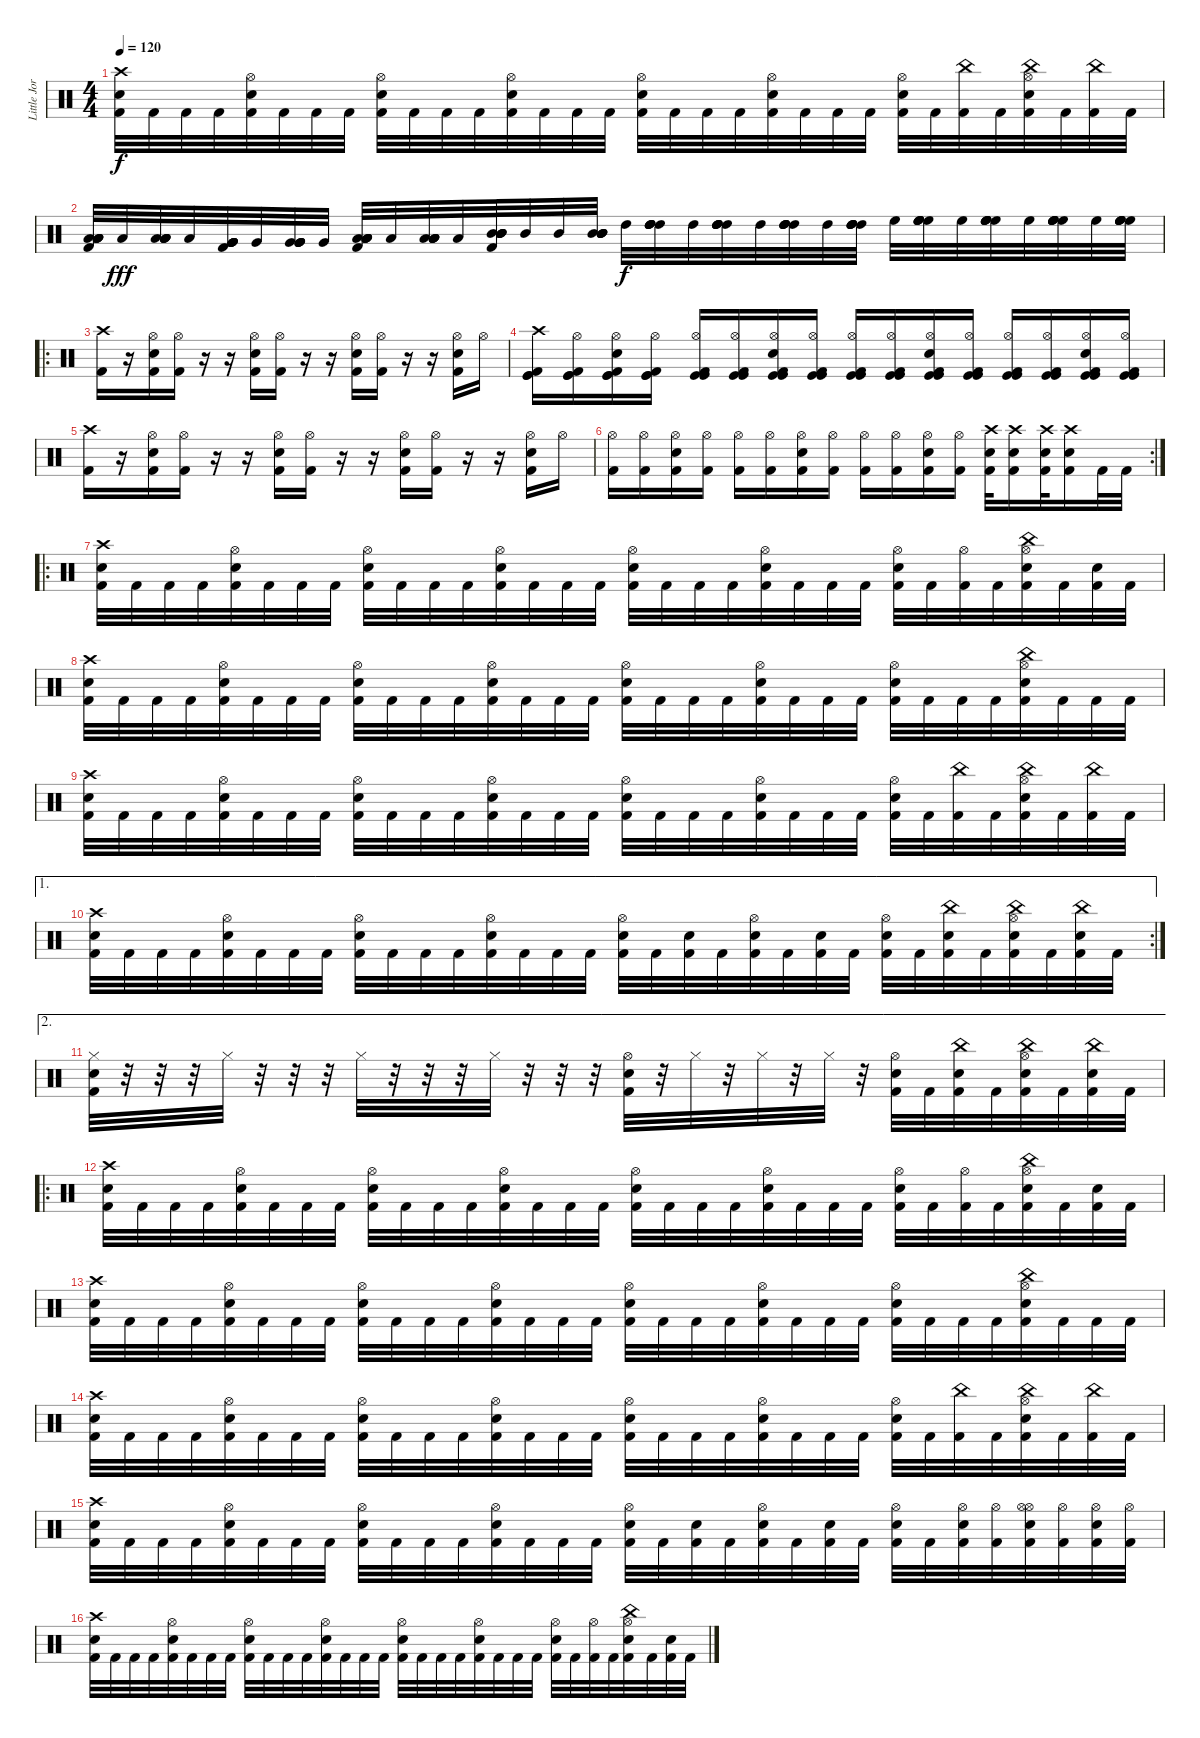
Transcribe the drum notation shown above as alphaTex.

\track ("Little Jordison" "Little Jor") {instrument percussion}
\staff {score}
\articulation defaults
\ts (4 4)
\tempo 120
\clef neutral
\ks c
("Crash high (hit)" "Electric Snare (hit)" "Kick (hit) 2").32{dy f} "Kick (hit) 2".32 "Kick (hit) 2".32 "Kick (hit) 2".32 ("Hi-Hat (open)" "Electric Snare (hit)" "Kick (hit) 2").32 "Kick (hit) 2".32 "Kick (hit) 2".32 "Kick (hit) 2".32 ("Hi-Hat (open)" "Electric Snare (hit)" "Kick (hit) 2").32 "Kick (hit) 2".32 "Kick (hit) 2".32 "Kick (hit) 2".32 ("Hi-Hat (open)" "Electric Snare (hit)" "Kick (hit) 2").32 "Kick (hit) 2".32 "Kick (hit) 2".32 "Kick (hit) 2".32 ("Hi-Hat (open)" "Electric Snare (hit)" "Kick (hit) 2").32 "Kick (hit) 2".32 "Kick (hit) 2".32 "Kick (hit) 2".32 ("Hi-Hat (open)" "Electric Snare (hit)" "Kick (hit) 2").32 "Kick (hit) 2".32 "Kick (hit) 2".32 "Kick (hit) 2".32 ("Hi-Hat (open)" "Electric Snare (hit)" "Kick (hit) 2").32 "Kick (hit) 2".32 ("China (hit)" "Kick (hit) 2").32 "Kick (hit) 2".32 ("China (hit)" "Hi-Hat (open)" "Electric Snare (hit)" "Kick (hit) 2").32 "Kick (hit) 2".32 ("China (hit)" "Kick (hit) 2").32 "Kick (hit) 2".32 |
("Low Floor Tom (hit)" "Low Floor Tom (hit)" "Low Floor Tom (hit)" "Low Floor Tom (hit)" "Low Floor Tom (hit)" "Kick (hit) 2").32 "Low Floor Tom (hit)".32{dy fff} ("Low Floor Tom (hit)" "Low Floor Tom (hit)" "Low Floor Tom (hit)" "Low Floor Tom (hit)" "Low Floor Tom (hit)").32 "Low Floor Tom (hit)".32 ("Very Low Tom (hit)" "Very Low Tom (hit)" "Very Low Tom (hit)" "Very Low Tom (hit)" "Very Low Tom (hit)" "Kick (hit) 2").32 "Very Low Tom (hit)".32 ("Very Low Tom (hit)" "Very Low Tom (hit)" "Very Low Tom (hit)" "Very Low Tom (hit)" "Very Low Tom (hit)").32 "Very Low Tom (hit)".32 ("Low Tom (hit)" "Low Tom (hit)" "Low Tom (hit)" "Low Tom (hit)" "Low Tom (hit)" "Kick (hit) 2").32 "Low Tom (hit)".32 ("Low Tom (hit)" "Low Tom (hit)" "Low Tom (hit)" "Low Tom (hit)" "Low Tom (hit)").32 "Low Tom (hit)".32 ("Mid Tom (hit)" "Mid Tom (hit)" "Mid Tom (hit)" "Mid Tom (hit)" "Mid Tom (hit)" "Kick (hit) 2").32 "Mid Tom (hit)".32 "Mid Tom (hit)".32 ("Mid Tom (hit)" "Mid Tom (hit)" "Mid Tom (hit)" "Mid Tom (hit)" "Mid Tom (hit)").32 "High Tom (hit)".32{dy f} ("High Tom (hit)" "High Tom (hit)" "High Tom (hit)" "High Tom (hit)" "High Tom (hit)").32 "High Tom (hit)".32 ("High Tom (hit)" "High Tom (hit)" "High Tom (hit)" "High Tom (hit)" "High Tom (hit)").32 "High Tom (hit)".32 ("High Tom (hit)" "High Tom (hit)" "High Tom (hit)" "High Tom (hit)" "High Tom (hit)").32 "High Tom (hit)".32 ("High Tom (hit)" "High Tom (hit)" "High Tom (hit)" "High Tom (hit)" "High Tom (hit)").32 "High Floor Tom (hit)".32 ("High Floor Tom (hit)" "High Floor Tom (hit)" "High Floor Tom (hit)" "High Floor Tom (hit)" "High Floor Tom (hit)").32 "High Floor Tom (hit)".32 ("High Floor Tom (hit)" "High Floor Tom (hit)" "High Floor Tom (hit)" "High Floor Tom (hit)" "High Floor Tom (hit)").32 "High Floor Tom (hit)".32 ("High Floor Tom (hit)" "High Floor Tom (hit)" "High Floor Tom (hit)" "High Floor Tom (hit)" "High Floor Tom (hit)").32 "High Floor Tom (hit)".32 ("High Floor Tom (hit)" "High Floor Tom (hit)" "High Floor Tom (hit)" "High Floor Tom (hit)" "High Floor Tom (hit)").32 |
\ro
("Crash high (hit)" "Kick (hit) 2").16 r.16 ("Hi-Hat (open)" "Electric Snare (hit)" "Kick (hit) 2").16 ("Hi-Hat (open)" "Kick (hit) 2").16 r.16 r.16 ("Hi-Hat (open)" "Electric Snare (hit)" "Kick (hit) 2").16 ("Hi-Hat (open)" "Kick (hit) 2").16 r.16 r.16 ("Hi-Hat (open)" "Electric Snare (hit)" "Kick (hit) 2").16 ("Hi-Hat (open)" "Kick (hit) 2").16 r.16 r.16 ("Hi-Hat (open)" "Electric Snare (hit)" "Kick (hit) 2").16 "Hi-Hat (open)".16 |
("Crash high (hit)" "Kick (hit)" "Kick (hit)" "Kick (hit) 2").16 ("Hi-Hat (open)" "Kick (hit)" "Kick (hit)" "Kick (hit) 2").16 ("Hi-Hat (open)" "Kick (hit)" "Kick (hit)" "Electric Snare (hit)" "Kick (hit) 2").16 ("Hi-Hat (open)" "Kick (hit)" "Kick (hit)" "Kick (hit) 2").16 ("Hi-Hat (open)" "Kick (hit)" "Kick (hit)" "Kick (hit) 2").16 ("Hi-Hat (open)" "Kick (hit)" "Kick (hit)" "Kick (hit) 2").16 ("Hi-Hat (open)" "Kick (hit)" "Kick (hit)" "Electric Snare (hit)" "Kick (hit) 2").16 ("Hi-Hat (open)" "Kick (hit)" "Kick (hit)" "Kick (hit) 2").16 ("Hi-Hat (open)" "Kick (hit)" "Kick (hit)" "Kick (hit) 2").16 ("Hi-Hat (open)" "Kick (hit)" "Kick (hit)" "Kick (hit) 2").16 ("Hi-Hat (open)" "Kick (hit)" "Kick (hit)" "Electric Snare (hit)" "Kick (hit) 2").16 ("Hi-Hat (open)" "Kick (hit)" "Kick (hit)" "Kick (hit) 2").16 ("Hi-Hat (open)" "Kick (hit)" "Kick (hit)" "Kick (hit) 2").16 ("Hi-Hat (open)" "Kick (hit)" "Kick (hit)" "Kick (hit) 2").16 ("Hi-Hat (open)" "Kick (hit)" "Kick (hit)" "Electric Snare (hit)" "Kick (hit) 2").16 ("Hi-Hat (open)" "Kick (hit)" "Kick (hit)" "Kick (hit) 2").16 |
("Crash high (hit)" "Kick (hit) 2").16 r.16 ("Hi-Hat (open)" "Electric Snare (hit)" "Kick (hit) 2").16 ("Hi-Hat (open)" "Kick (hit) 2").16 r.16 r.16 ("Hi-Hat (open)" "Electric Snare (hit)" "Kick (hit) 2").16 ("Hi-Hat (open)" "Kick (hit) 2").16 r.16 r.16 ("Hi-Hat (open)" "Electric Snare (hit)" "Kick (hit) 2").16 ("Hi-Hat (open)" "Kick (hit) 2").16 r.16 r.16 ("Hi-Hat (open)" "Electric Snare (hit)" "Kick (hit) 2").16 "Hi-Hat (open)".16 |
\rc 2
("Hi-Hat (open)" "Kick (hit) 2").16 ("Hi-Hat (open)" "Kick (hit) 2").16 ("Hi-Hat (open)" "Electric Snare (hit)" "Kick (hit) 2").16 ("Hi-Hat (open)" "Kick (hit) 2").16 ("Hi-Hat (open)" "Kick (hit) 2").16 ("Hi-Hat (open)" "Kick (hit) 2").16 ("Hi-Hat (open)" "Electric Snare (hit)" "Kick (hit) 2").16 ("Hi-Hat (open)" "Kick (hit) 2").16 ("Hi-Hat (open)" "Kick (hit) 2").16 ("Hi-Hat (open)" "Kick (hit) 2").16 ("Hi-Hat (open)" "Electric Snare (hit)" "Kick (hit) 2").16 ("Hi-Hat (open)" "Kick (hit) 2").16 ("Crash high (hit)" "Electric Snare (hit)" "Kick (hit) 2").32 ("Crash high (hit)" "Electric Snare (hit)" "Kick (hit) 2").16 ("Crash high (hit)" "Electric Snare (hit)" "Kick (hit) 2").32 ("Crash high (hit)" "Electric Snare (hit)" "Kick (hit) 2").16 "Kick (hit) 2".32 "Kick (hit) 2".32 |
\ro
("Crash high (hit)" "Electric Snare (hit)" "Kick (hit) 2").32 "Kick (hit) 2".32 "Kick (hit) 2".32 "Kick (hit) 2".32 ("Hi-Hat (open)" "Electric Snare (hit)" "Kick (hit) 2").32 "Kick (hit) 2".32 "Kick (hit) 2".32 "Kick (hit) 2".32 ("Hi-Hat (open)" "Electric Snare (hit)" "Kick (hit) 2").32 "Kick (hit) 2".32 "Kick (hit) 2".32 "Kick (hit) 2".32 ("Hi-Hat (open)" "Electric Snare (hit)" "Kick (hit) 2").32 "Kick (hit) 2".32 "Kick (hit) 2".32 "Kick (hit) 2".32 ("Hi-Hat (open)" "Electric Snare (hit)" "Kick (hit) 2").32 "Kick (hit) 2".32 "Kick (hit) 2".32 "Kick (hit) 2".32 ("Hi-Hat (open)" "Electric Snare (hit)" "Kick (hit) 2").32 "Kick (hit) 2".32 "Kick (hit) 2".32 "Kick (hit) 2".32 ("Hi-Hat (open)" "Electric Snare (hit)" "Kick (hit) 2").32 "Kick (hit) 2".32 ("Hi-Hat (open)" "Kick (hit) 2").32 "Kick (hit) 2".32 ("China (hit)" "Hi-Hat (open)" "Electric Snare (hit)" "Kick (hit) 2").32 "Kick (hit) 2".32 ("Snare (hit)" "Kick (hit) 2").32 "Kick (hit) 2".32 |
("Crash high (hit)" "Electric Snare (hit)" "Kick (hit) 2").32 "Kick (hit) 2".32 "Kick (hit) 2".32 "Kick (hit) 2".32 ("Hi-Hat (open)" "Electric Snare (hit)" "Kick (hit) 2").32 "Kick (hit) 2".32 "Kick (hit) 2".32 "Kick (hit) 2".32 ("Hi-Hat (open)" "Electric Snare (hit)" "Kick (hit) 2").32 "Kick (hit) 2".32 "Kick (hit) 2".32 "Kick (hit) 2".32 ("Hi-Hat (open)" "Electric Snare (hit)" "Kick (hit) 2").32 "Kick (hit) 2".32 "Kick (hit) 2".32 "Kick (hit) 2".32 ("Hi-Hat (open)" "Electric Snare (hit)" "Kick (hit) 2").32 "Kick (hit) 2".32 "Kick (hit) 2".32 "Kick (hit) 2".32 ("Hi-Hat (open)" "Electric Snare (hit)" "Kick (hit) 2").32 "Kick (hit) 2".32 "Kick (hit) 2".32 "Kick (hit) 2".32 ("Hi-Hat (open)" "Electric Snare (hit)" "Kick (hit) 2").32 "Kick (hit) 2".32 "Kick (hit) 2".32 "Kick (hit) 2".32 ("China (hit)" "Hi-Hat (open)" "Electric Snare (hit)" "Kick (hit) 2").32 "Kick (hit) 2".32 "Kick (hit) 2".32 "Kick (hit) 2".32 |
("Crash high (hit)" "Electric Snare (hit)" "Kick (hit) 2").32 "Kick (hit) 2".32 "Kick (hit) 2".32 "Kick (hit) 2".32 ("Hi-Hat (open)" "Electric Snare (hit)" "Kick (hit) 2").32 "Kick (hit) 2".32 "Kick (hit) 2".32 "Kick (hit) 2".32 ("Hi-Hat (open)" "Electric Snare (hit)" "Kick (hit) 2").32 "Kick (hit) 2".32 "Kick (hit) 2".32 "Kick (hit) 2".32 ("Hi-Hat (open)" "Electric Snare (hit)" "Kick (hit) 2").32 "Kick (hit) 2".32 "Kick (hit) 2".32 "Kick (hit) 2".32 ("Hi-Hat (open)" "Electric Snare (hit)" "Kick (hit) 2").32 "Kick (hit) 2".32 "Kick (hit) 2".32 "Kick (hit) 2".32 ("Hi-Hat (open)" "Electric Snare (hit)" "Kick (hit) 2").32 "Kick (hit) 2".32 "Kick (hit) 2".32 "Kick (hit) 2".32 ("Hi-Hat (open)" "Electric Snare (hit)" "Kick (hit) 2").32 "Kick (hit) 2".32 ("China (hit)" "Kick (hit) 2").32 "Kick (hit) 2".32 ("China (hit)" "Hi-Hat (open)" "Electric Snare (hit)" "Kick (hit) 2").32 "Kick (hit) 2".32 ("China (hit)" "Kick (hit) 2").32 "Kick (hit) 2".32 |
\ae 1
\rc 2
("Crash high (hit)" "Electric Snare (hit)" "Kick (hit) 2").32 "Kick (hit) 2".32 "Kick (hit) 2".32 "Kick (hit) 2".32 ("Hi-Hat (open)" "Electric Snare (hit)" "Kick (hit) 2").32 "Kick (hit) 2".32 "Kick (hit) 2".32 "Kick (hit) 2".32 ("Hi-Hat (open)" "Electric Snare (hit)" "Kick (hit) 2").32 "Kick (hit) 2".32 "Kick (hit) 2".32 "Kick (hit) 2".32 ("Hi-Hat (open)" "Electric Snare (hit)" "Kick (hit) 2").32 "Kick (hit) 2".32 "Kick (hit) 2".32 "Kick (hit) 2".32 ("Hi-Hat (open)" "Electric Snare (hit)" "Kick (hit) 2").32 "Kick (hit) 2".32 ("Electric Snare (hit)" "Kick (hit) 2").32 "Kick (hit) 2".32 ("Hi-Hat (open)" "Electric Snare (hit)" "Kick (hit) 2").32 "Kick (hit) 2".32 ("Electric Snare (hit)" "Kick (hit) 2").32 "Kick (hit) 2".32 ("Hi-Hat (open)" "Electric Snare (hit)" "Kick (hit) 2").32 "Kick (hit) 2".32 ("China (hit)" "Electric Snare (hit)" "Kick (hit) 2").32 "Kick (hit) 2".32 ("China (hit)" "Hi-Hat (open)" "Electric Snare (hit)" "Kick (hit) 2").32 "Kick (hit) 2".32 ("China (hit)" "Electric Snare (hit)" "Kick (hit) 2").32 "Kick (hit) 2".32 |
\ae 2
("Hi-Hat (closed)" "Electric Snare (hit)" "Kick (hit) 2").32 r.32 r.32 r.32 "Hi-Hat (closed)".32 r.32 r.32 r.32 "Hi-Hat (closed)".32 r.32 r.32 r.32 "Hi-Hat (closed)".32 r.32 r.32 r.32 ("Hi-Hat (open)" "Electric Snare (hit)" "Kick (hit) 2").32 r.32 "Hi-Hat (closed)".32 r.32 "Hi-Hat (closed)".32 r.32 "Hi-Hat (closed)".32 r.32 ("Hi-Hat (open)" "Electric Snare (hit)" "Kick (hit) 2").32 "Kick (hit) 2".32 ("China (hit)" "Electric Snare (hit)" "Kick (hit) 2").32 "Kick (hit) 2".32 ("China (hit)" "Hi-Hat (open)" "Electric Snare (hit)" "Kick (hit) 2").32 "Kick (hit) 2".32 ("China (hit)" "Electric Snare (hit)" "Kick (hit) 2").32 "Kick (hit) 2".32 |
\ro
("Crash high (hit)" "Electric Snare (hit)" "Kick (hit) 2").32 "Kick (hit) 2".32 "Kick (hit) 2".32 "Kick (hit) 2".32 ("Hi-Hat (open)" "Electric Snare (hit)" "Kick (hit) 2").32 "Kick (hit) 2".32 "Kick (hit) 2".32 "Kick (hit) 2".32 ("Hi-Hat (open)" "Electric Snare (hit)" "Kick (hit) 2").32 "Kick (hit) 2".32 "Kick (hit) 2".32 "Kick (hit) 2".32 ("Hi-Hat (open)" "Electric Snare (hit)" "Kick (hit) 2").32 "Kick (hit) 2".32 "Kick (hit) 2".32 "Kick (hit) 2".32 ("Hi-Hat (open)" "Electric Snare (hit)" "Kick (hit) 2").32 "Kick (hit) 2".32 "Kick (hit) 2".32 "Kick (hit) 2".32 ("Hi-Hat (open)" "Electric Snare (hit)" "Kick (hit) 2").32 "Kick (hit) 2".32 "Kick (hit) 2".32 "Kick (hit) 2".32 ("Hi-Hat (open)" "Electric Snare (hit)" "Kick (hit) 2").32 "Kick (hit) 2".32 ("Hi-Hat (open)" "Kick (hit) 2").32 "Kick (hit) 2".32 ("China (hit)" "Hi-Hat (open)" "Electric Snare (hit)" "Kick (hit) 2").32 "Kick (hit) 2".32 ("Snare (hit)" "Kick (hit) 2").32 "Kick (hit) 2".32 |
("Crash high (hit)" "Electric Snare (hit)" "Kick (hit) 2").32 "Kick (hit) 2".32 "Kick (hit) 2".32 "Kick (hit) 2".32 ("Hi-Hat (open)" "Electric Snare (hit)" "Kick (hit) 2").32 "Kick (hit) 2".32 "Kick (hit) 2".32 "Kick (hit) 2".32 ("Hi-Hat (open)" "Electric Snare (hit)" "Kick (hit) 2").32 "Kick (hit) 2".32 "Kick (hit) 2".32 "Kick (hit) 2".32 ("Hi-Hat (open)" "Electric Snare (hit)" "Kick (hit) 2").32 "Kick (hit) 2".32 "Kick (hit) 2".32 "Kick (hit) 2".32 ("Hi-Hat (open)" "Electric Snare (hit)" "Kick (hit) 2").32 "Kick (hit) 2".32 "Kick (hit) 2".32 "Kick (hit) 2".32 ("Hi-Hat (open)" "Electric Snare (hit)" "Kick (hit) 2").32 "Kick (hit) 2".32 "Kick (hit) 2".32 "Kick (hit) 2".32 ("Hi-Hat (open)" "Electric Snare (hit)" "Kick (hit) 2").32 "Kick (hit) 2".32 "Kick (hit) 2".32 "Kick (hit) 2".32 ("China (hit)" "Hi-Hat (open)" "Electric Snare (hit)" "Kick (hit) 2").32 "Kick (hit) 2".32 "Kick (hit) 2".32 "Kick (hit) 2".32 |
("Crash high (hit)" "Electric Snare (hit)" "Kick (hit) 2").32 "Kick (hit) 2".32 "Kick (hit) 2".32 "Kick (hit) 2".32 ("Hi-Hat (open)" "Electric Snare (hit)" "Kick (hit) 2").32 "Kick (hit) 2".32 "Kick (hit) 2".32 "Kick (hit) 2".32 ("Hi-Hat (open)" "Electric Snare (hit)" "Kick (hit) 2").32 "Kick (hit) 2".32 "Kick (hit) 2".32 "Kick (hit) 2".32 ("Hi-Hat (open)" "Electric Snare (hit)" "Kick (hit) 2").32 "Kick (hit) 2".32 "Kick (hit) 2".32 "Kick (hit) 2".32 ("Hi-Hat (open)" "Electric Snare (hit)" "Kick (hit) 2").32 "Kick (hit) 2".32 "Kick (hit) 2".32 "Kick (hit) 2".32 ("Hi-Hat (open)" "Electric Snare (hit)" "Kick (hit) 2").32 "Kick (hit) 2".32 "Kick (hit) 2".32 "Kick (hit) 2".32 ("Hi-Hat (open)" "Electric Snare (hit)" "Kick (hit) 2").32 "Kick (hit) 2".32 ("China (hit)" "Kick (hit) 2").32 "Kick (hit) 2".32 ("China (hit)" "Hi-Hat (open)" "Electric Snare (hit)" "Kick (hit) 2").32 "Kick (hit) 2".32 ("China (hit)" "Kick (hit) 2").32 "Kick (hit) 2".32 |
("Crash high (hit)" "Electric Snare (hit)" "Kick (hit) 2").32 "Kick (hit) 2".32 "Kick (hit) 2".32 "Kick (hit) 2".32 ("Hi-Hat (open)" "Electric Snare (hit)" "Kick (hit) 2").32 "Kick (hit) 2".32 "Kick (hit) 2".32 "Kick (hit) 2".32 ("Hi-Hat (open)" "Electric Snare (hit)" "Kick (hit) 2").32 "Kick (hit) 2".32 "Kick (hit) 2".32 "Kick (hit) 2".32 ("Hi-Hat (open)" "Electric Snare (hit)" "Kick (hit) 2").32 "Kick (hit) 2".32 "Kick (hit) 2".32 "Kick (hit) 2".32 ("Hi-Hat (open)" "Electric Snare (hit)" "Kick (hit) 2").32 "Kick (hit) 2".32 ("Electric Snare (hit)" "Kick (hit) 2").32 "Kick (hit) 2".32 ("Hi-Hat (open)" "Electric Snare (hit)" "Kick (hit) 2").32 "Kick (hit) 2".32 ("Electric Snare (hit)" "Kick (hit) 2").32 "Kick (hit) 2".32 ("Hi-Hat (open)" "Electric Snare (hit)" "Kick (hit) 2").32 "Kick (hit) 2".32 ("Hi-Hat (open)" "Electric Snare (hit)" "Kick (hit) 2").32 ("Hi-Hat (open)" "Kick (hit) 2").32 ("Hi-Hat (open)" "Hi-Hat (open)" "Electric Snare (hit)" "Kick (hit) 2").32 ("Hi-Hat (open)" "Kick (hit) 2").32 ("Hi-Hat (open)" "Electric Snare (hit)" "Kick (hit) 2").32 ("Hi-Hat (open)" "Kick (hit) 2").32 |
("Crash high (hit)" "Electric Snare (hit)" "Kick (hit) 2").32 "Kick (hit) 2".32 "Kick (hit) 2".32 "Kick (hit) 2".32 ("Hi-Hat (open)" "Electric Snare (hit)" "Kick (hit) 2").32 "Kick (hit) 2".32 "Kick (hit) 2".32 "Kick (hit) 2".32 ("Hi-Hat (open)" "Electric Snare (hit)" "Kick (hit) 2").32 "Kick (hit) 2".32 "Kick (hit) 2".32 "Kick (hit) 2".32 ("Hi-Hat (open)" "Electric Snare (hit)" "Kick (hit) 2").32 "Kick (hit) 2".32 "Kick (hit) 2".32 "Kick (hit) 2".32 ("Hi-Hat (open)" "Electric Snare (hit)" "Kick (hit) 2").32 "Kick (hit) 2".32 "Kick (hit) 2".32 "Kick (hit) 2".32 ("Hi-Hat (open)" "Electric Snare (hit)" "Kick (hit) 2").32 "Kick (hit) 2".32 "Kick (hit) 2".32 "Kick (hit) 2".32 ("Hi-Hat (open)" "Electric Snare (hit)" "Kick (hit) 2").32 "Kick (hit) 2".32 ("Hi-Hat (open)" "Kick (hit) 2").32 "Kick (hit) 2".32 ("China (hit)" "Hi-Hat (open)" "Electric Snare (hit)" "Kick (hit) 2").32 "Kick (hit) 2".32 ("Snare (hit)" "Kick (hit) 2").32 "Kick (hit) 2".32
